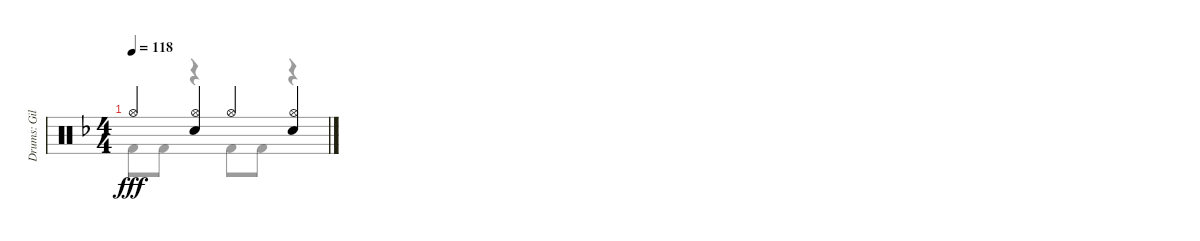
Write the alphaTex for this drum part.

\track ("Drums: Gil" "Drums: Gil") {instrument percussion}
\staff {score}
\articulation defaults
\voice
\ts (4 4)
\tempo 118
\clef neutral
\ks f "Hi-Hat (open)".4{dy fff beam merge}
("Hi-Hat (open)" "Snare (hit) 2").4 "Hi-Hat (open)".4{beam merge} ("Hi-Hat (open)" "Snare (hit) 2").4
\voice
\clef neutral
\ottava regular
\simile none
\ks f "Kick (hit) 2".8{dy fff} "Kick (hit) 2".8
r.4 "Kick (hit) 2".8 "Kick (hit) 2".8 r.4
